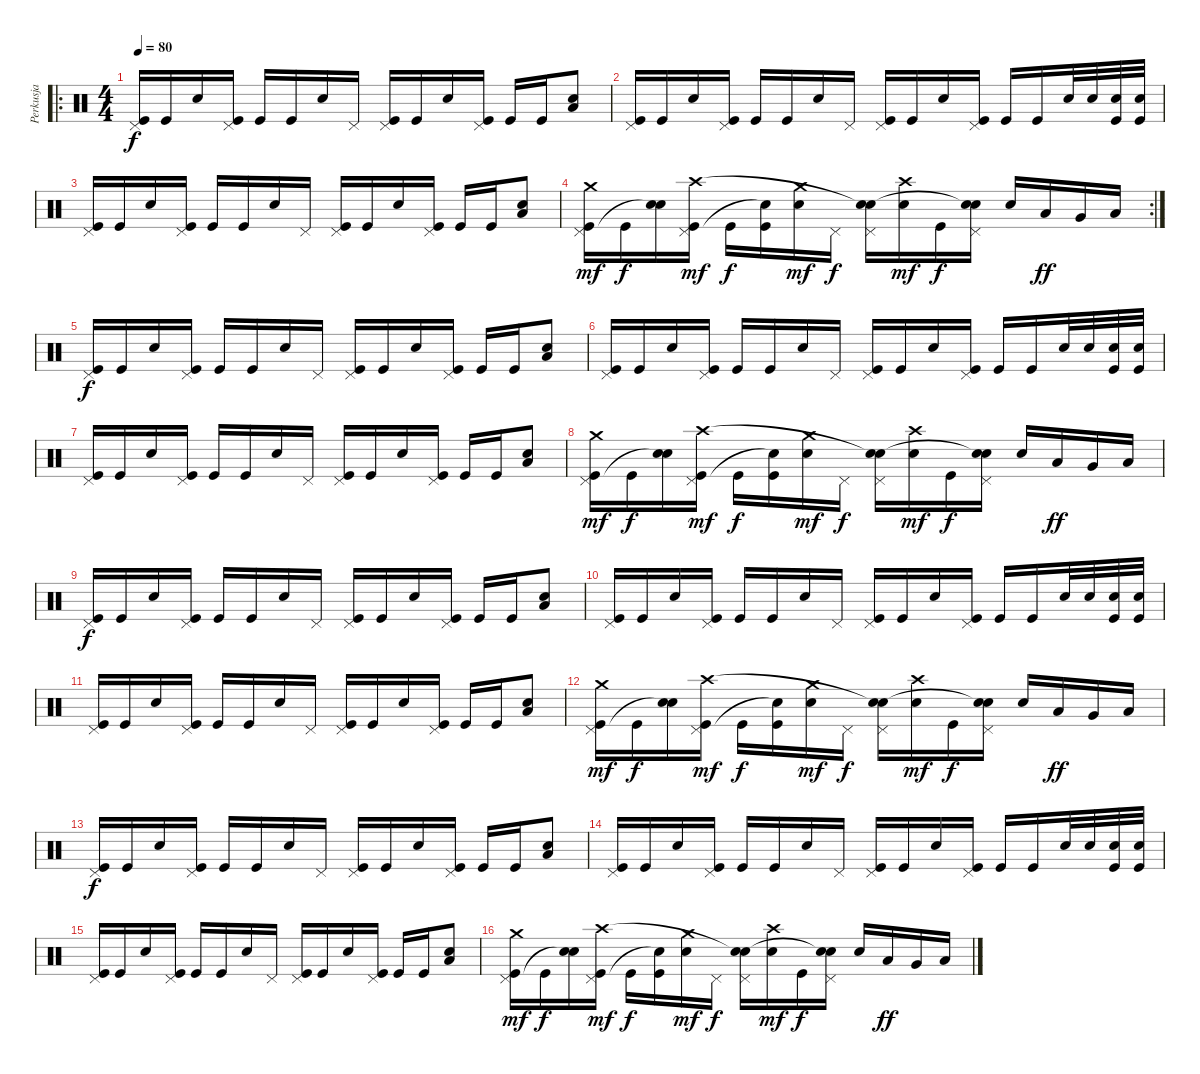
\track ("Perkusja" "Perkusja") {instrument percussion}
\staff {score}
\articulation defaults
\ro
\ts (4 4)
\tempo 80
\clef neutral
\ks c
("Kick (hit)" "Pedal Hi-Hat (hit)").16{dy f} "Kick (hit)".16 "Electric Snare (hit)".16 ("Kick (hit)" "Pedal Hi-Hat (hit)").16 "Kick (hit)".16 "Kick (hit)".16 "Electric Snare (hit)".16 "Pedal Hi-Hat (hit)".16 ("Kick (hit)" "Pedal Hi-Hat (hit)").16 "Kick (hit)".16 "Electric Snare (hit)".16 ("Kick (hit)" "Pedal Hi-Hat (hit)").16 "Kick (hit)".16 "Kick (hit)".16 ("Electric Snare (hit)" "Low Tom (hit)").8 |
("Kick (hit)" "Pedal Hi-Hat (hit)").16 "Kick (hit)".16 "Electric Snare (hit)".16 ("Kick (hit)" "Pedal Hi-Hat (hit)").16 "Kick (hit)".16 "Kick (hit)".16 "Electric Snare (hit)".16 "Pedal Hi-Hat (hit)".16 ("Kick (hit)" "Pedal Hi-Hat (hit)").16 "Kick (hit)".16 "Electric Snare (hit)".16 ("Kick (hit)" "Pedal Hi-Hat (hit)").16 "Kick (hit)".16 "Kick (hit)".16 "Electric Snare (hit)".32 "Electric Snare (hit)".32 ("Electric Snare (hit)" "Kick (hit)").32 ("Electric Snare (hit)" "Kick (hit)").32 |
("Kick (hit)" "Pedal Hi-Hat (hit)").16 "Kick (hit)".16 "Electric Snare (hit)".16 ("Kick (hit)" "Pedal Hi-Hat (hit)").16 "Kick (hit)".16 "Kick (hit)".16 "Electric Snare (hit)".16 "Pedal Hi-Hat (hit)".16 ("Kick (hit)" "Pedal Hi-Hat (hit)").16 "Kick (hit)".16 "Electric Snare (hit)".16 ("Kick (hit)" "Pedal Hi-Hat (hit)").16 "Kick (hit)".16 "Kick (hit)".16 ("Electric Snare (hit)" "Low Tom (hit)").8 |
\rc 2
("Kick (hit)" "Pedal Hi-Hat (hit)" "Crash medium (hit)").16{dy mf} "Kick (hit)".16{dy f} ("Electric Snare (hit)" "Snare (hit)"{t}).16 ("Kick (hit)" "Pedal Hi-Hat (hit)" "Crash high (hit)").16{dy mf} "Kick (hit)".16{dy f} ("Kick (hit)" "Snare (hit)"{t}).16 ("Electric Snare (hit)" "Crash medium (hit)").16{dy mf} "Pedal Hi-Hat (hit)".16{dy f} ("Electric Snare (hit)" "Pedal Hi-Hat (hit)" "Snare (hit)"{t}).16 ("Snare (hit) 2" "Crash high (hit)").16{dy mf} "Kick (hit)".16{dy f} ("Electric Snare (hit)" "Pedal Hi-Hat (hit)" "Snare (hit)"{t}).16 "Snare (hit) 2".16 "Low Tom (hit)".16{dy ff} "Very Low Tom (hit)".16 "Low Floor Tom (hit)".16 |
("Kick (hit)" "Pedal Hi-Hat (hit)").16{dy f} "Kick (hit)".16 "Electric Snare (hit)".16 ("Kick (hit)" "Pedal Hi-Hat (hit)").16 "Kick (hit)".16 "Kick (hit)".16 "Electric Snare (hit)".16 "Pedal Hi-Hat (hit)".16 ("Kick (hit)" "Pedal Hi-Hat (hit)").16 "Kick (hit)".16 "Electric Snare (hit)".16 ("Kick (hit)" "Pedal Hi-Hat (hit)").16 "Kick (hit)".16 "Kick (hit)".16 ("Electric Snare (hit)" "Low Tom (hit)").8 |
("Kick (hit)" "Pedal Hi-Hat (hit)").16 "Kick (hit)".16 "Electric Snare (hit)".16 ("Kick (hit)" "Pedal Hi-Hat (hit)").16 "Kick (hit)".16 "Kick (hit)".16 "Electric Snare (hit)".16 "Pedal Hi-Hat (hit)".16 ("Kick (hit)" "Pedal Hi-Hat (hit)").16 "Kick (hit)".16 "Electric Snare (hit)".16 ("Kick (hit)" "Pedal Hi-Hat (hit)").16 "Kick (hit)".16 "Kick (hit)".16 "Electric Snare (hit)".32 "Electric Snare (hit)".32 ("Electric Snare (hit)" "Kick (hit)").32 ("Electric Snare (hit)" "Kick (hit)").32 |
("Kick (hit)" "Pedal Hi-Hat (hit)").16 "Kick (hit)".16 "Electric Snare (hit)".16 ("Kick (hit)" "Pedal Hi-Hat (hit)").16 "Kick (hit)".16 "Kick (hit)".16 "Electric Snare (hit)".16 "Pedal Hi-Hat (hit)".16 ("Kick (hit)" "Pedal Hi-Hat (hit)").16 "Kick (hit)".16 "Electric Snare (hit)".16 ("Kick (hit)" "Pedal Hi-Hat (hit)").16 "Kick (hit)".16 "Kick (hit)".16 ("Electric Snare (hit)" "Low Tom (hit)").8 |
("Kick (hit)" "Pedal Hi-Hat (hit)" "Crash medium (hit)").16{dy mf} "Kick (hit)".16{dy f} ("Electric Snare (hit)" "Snare (hit)"{t}).16 ("Kick (hit)" "Pedal Hi-Hat (hit)" "Crash high (hit)").16{dy mf} "Kick (hit)".16{dy f} ("Kick (hit)" "Snare (hit)"{t}).16 ("Electric Snare (hit)" "Crash medium (hit)").16{dy mf} "Pedal Hi-Hat (hit)".16{dy f} ("Electric Snare (hit)" "Pedal Hi-Hat (hit)" "Snare (hit)"{t}).16 ("Snare (hit) 2" "Crash high (hit)").16{dy mf} "Kick (hit)".16{dy f} ("Electric Snare (hit)" "Pedal Hi-Hat (hit)" "Snare (hit)"{t}).16 "Snare (hit) 2".16 "Low Tom (hit)".16{dy ff} "Very Low Tom (hit)".16 "Low Floor Tom (hit)".16 |
("Kick (hit)" "Pedal Hi-Hat (hit)").16{dy f} "Kick (hit)".16 "Electric Snare (hit)".16 ("Kick (hit)" "Pedal Hi-Hat (hit)").16 "Kick (hit)".16 "Kick (hit)".16 "Electric Snare (hit)".16 "Pedal Hi-Hat (hit)".16 ("Kick (hit)" "Pedal Hi-Hat (hit)").16 "Kick (hit)".16 "Electric Snare (hit)".16 ("Kick (hit)" "Pedal Hi-Hat (hit)").16 "Kick (hit)".16 "Kick (hit)".16 ("Electric Snare (hit)" "Low Tom (hit)").8 |
("Kick (hit)" "Pedal Hi-Hat (hit)").16 "Kick (hit)".16 "Electric Snare (hit)".16 ("Kick (hit)" "Pedal Hi-Hat (hit)").16 "Kick (hit)".16 "Kick (hit)".16 "Electric Snare (hit)".16 "Pedal Hi-Hat (hit)".16 ("Kick (hit)" "Pedal Hi-Hat (hit)").16 "Kick (hit)".16 "Electric Snare (hit)".16 ("Kick (hit)" "Pedal Hi-Hat (hit)").16 "Kick (hit)".16 "Kick (hit)".16 "Electric Snare (hit)".32 "Electric Snare (hit)".32 ("Electric Snare (hit)" "Kick (hit)").32 ("Electric Snare (hit)" "Kick (hit)").32 |
("Kick (hit)" "Pedal Hi-Hat (hit)").16 "Kick (hit)".16 "Electric Snare (hit)".16 ("Kick (hit)" "Pedal Hi-Hat (hit)").16 "Kick (hit)".16 "Kick (hit)".16 "Electric Snare (hit)".16 "Pedal Hi-Hat (hit)".16 ("Kick (hit)" "Pedal Hi-Hat (hit)").16 "Kick (hit)".16 "Electric Snare (hit)".16 ("Kick (hit)" "Pedal Hi-Hat (hit)").16 "Kick (hit)".16 "Kick (hit)".16 ("Electric Snare (hit)" "Low Tom (hit)").8 |
("Kick (hit)" "Pedal Hi-Hat (hit)" "Crash medium (hit)").16{dy mf} "Kick (hit)".16{dy f} ("Electric Snare (hit)" "Snare (hit)"{t}).16 ("Kick (hit)" "Pedal Hi-Hat (hit)" "Crash high (hit)").16{dy mf} "Kick (hit)".16{dy f} ("Kick (hit)" "Snare (hit)"{t}).16 ("Electric Snare (hit)" "Crash medium (hit)").16{dy mf} "Pedal Hi-Hat (hit)".16{dy f} ("Electric Snare (hit)" "Pedal Hi-Hat (hit)" "Snare (hit)"{t}).16 ("Snare (hit) 2" "Crash high (hit)").16{dy mf} "Kick (hit)".16{dy f} ("Electric Snare (hit)" "Pedal Hi-Hat (hit)" "Snare (hit)"{t}).16 "Snare (hit) 2".16 "Low Tom (hit)".16{dy ff} "Very Low Tom (hit)".16 "Low Floor Tom (hit)".16 |
("Kick (hit)" "Pedal Hi-Hat (hit)").16{dy f} "Kick (hit)".16 "Electric Snare (hit)".16 ("Kick (hit)" "Pedal Hi-Hat (hit)").16 "Kick (hit)".16 "Kick (hit)".16 "Electric Snare (hit)".16 "Pedal Hi-Hat (hit)".16 ("Kick (hit)" "Pedal Hi-Hat (hit)").16 "Kick (hit)".16 "Electric Snare (hit)".16 ("Kick (hit)" "Pedal Hi-Hat (hit)").16 "Kick (hit)".16 "Kick (hit)".16 ("Electric Snare (hit)" "Low Tom (hit)").8 |
("Kick (hit)" "Pedal Hi-Hat (hit)").16 "Kick (hit)".16 "Electric Snare (hit)".16 ("Kick (hit)" "Pedal Hi-Hat (hit)").16 "Kick (hit)".16 "Kick (hit)".16 "Electric Snare (hit)".16 "Pedal Hi-Hat (hit)".16 ("Kick (hit)" "Pedal Hi-Hat (hit)").16 "Kick (hit)".16 "Electric Snare (hit)".16 ("Kick (hit)" "Pedal Hi-Hat (hit)").16 "Kick (hit)".16 "Kick (hit)".16 "Electric Snare (hit)".32 "Electric Snare (hit)".32 ("Electric Snare (hit)" "Kick (hit)").32 ("Electric Snare (hit)" "Kick (hit)").32 |
("Kick (hit)" "Pedal Hi-Hat (hit)").16 "Kick (hit)".16 "Electric Snare (hit)".16 ("Kick (hit)" "Pedal Hi-Hat (hit)").16 "Kick (hit)".16 "Kick (hit)".16 "Electric Snare (hit)".16 "Pedal Hi-Hat (hit)".16 ("Kick (hit)" "Pedal Hi-Hat (hit)").16 "Kick (hit)".16 "Electric Snare (hit)".16 ("Kick (hit)" "Pedal Hi-Hat (hit)").16 "Kick (hit)".16 "Kick (hit)".16 ("Electric Snare (hit)" "Low Tom (hit)").8 |
("Kick (hit)" "Pedal Hi-Hat (hit)" "Crash medium (hit)").16{dy mf} "Kick (hit)".16{dy f} ("Electric Snare (hit)" "Snare (hit)"{t}).16 ("Kick (hit)" "Pedal Hi-Hat (hit)" "Crash high (hit)").16{dy mf} "Kick (hit)".16{dy f} ("Kick (hit)" "Snare (hit)"{t}).16 ("Electric Snare (hit)" "Crash medium (hit)").16{dy mf} "Pedal Hi-Hat (hit)".16{dy f} ("Electric Snare (hit)" "Pedal Hi-Hat (hit)" "Snare (hit)"{t}).16 ("Snare (hit) 2" "Crash high (hit)").16{dy mf} "Kick (hit)".16{dy f} ("Electric Snare (hit)" "Pedal Hi-Hat (hit)" "Snare (hit)"{t}).16 "Snare (hit) 2".16 "Low Tom (hit)".16{dy ff} "Very Low Tom (hit)".16 "Low Floor Tom (hit)".16
